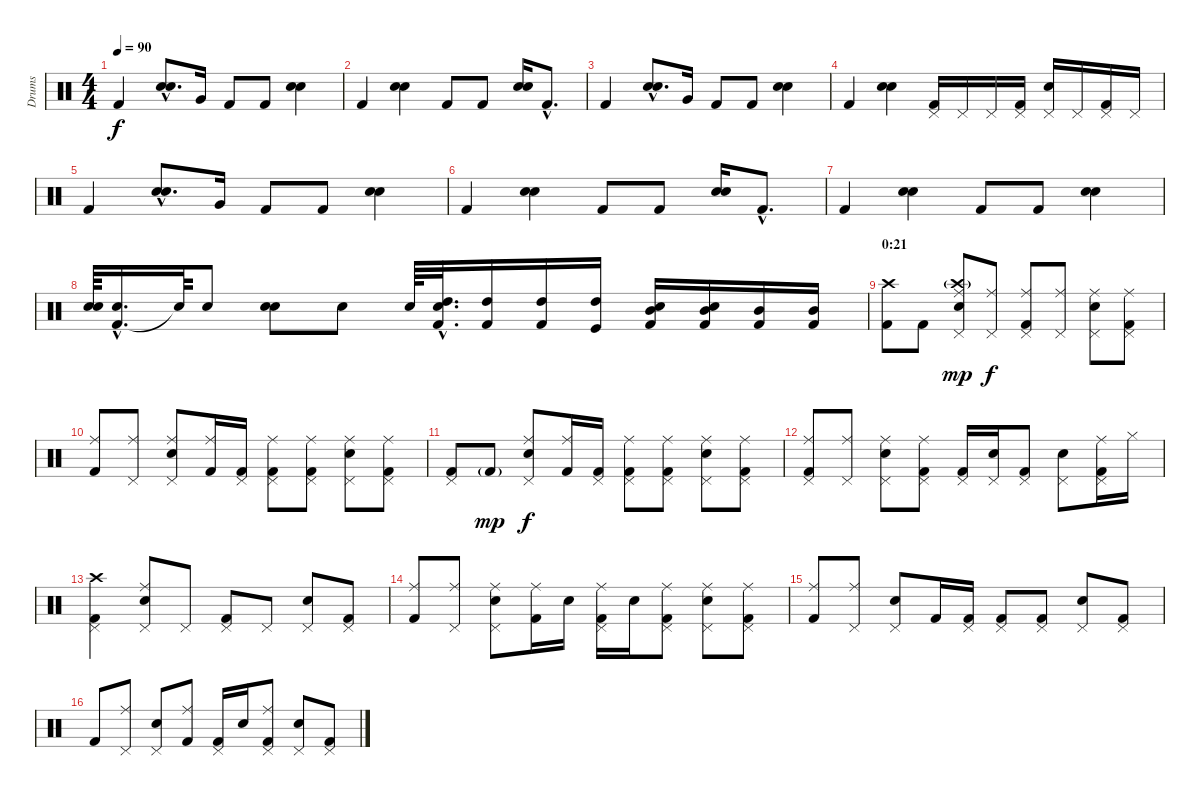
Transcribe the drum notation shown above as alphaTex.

\track ("Drums" "Drums") {instrument percussion}
\staff {score}
\articulation defaults
\ts (4 4)
\tempo 90
\clef neutral
\ks c "Kick (hit) 2".4{dy f}
("Hand Clap (hit)"{hac} "Snare (hit) 2"{hac}).8{d} "Very Low Tom (hit)".16 "Kick (hit) 2".8 "Kick (hit) 2".8 ("Hand Clap (hit)" "Snare (hit) 2").4 |
"Kick (hit) 2".4 ("Hand Clap (hit)" "Snare (hit) 2").4 "Kick (hit) 2".8 "Kick (hit) 2".8 ("Hand Clap (hit)" "Snare (hit) 2").16 "Kick (hit) 2"{hac}.8{d} |
"Kick (hit) 2".4 ("Hand Clap (hit)"{hac} "Snare (hit) 2"{hac}).8{d} "Very Low Tom (hit)".16 "Kick (hit) 2".8 "Kick (hit) 2".8 ("Hand Clap (hit)" "Snare (hit) 2").4 |
"Kick (hit) 2".4 ("Hand Clap (hit)" "Snare (hit) 2").4 ("Kick (hit) 2" "Pedal Hi-Hat (hit)").16 "Pedal Hi-Hat (hit)".16 "Pedal Hi-Hat (hit)".16 ("Kick (hit) 2" "Pedal Hi-Hat (hit)").16 ("Snare (hit) 2" "Pedal Hi-Hat (hit)").16 "Pedal Hi-Hat (hit)".16 ("Kick (hit) 2" "Pedal Hi-Hat (hit)").16 "Pedal Hi-Hat (hit)".16 |
"Kick (hit) 2".4 ("Hand Clap (hit)"{hac} "Snare (hit) 2"{hac}).8{d} "Very Low Tom (hit)".16 "Kick (hit) 2".8 "Kick (hit) 2".8 ("Hand Clap (hit)" "Snare (hit) 2").4 |
"Kick (hit) 2".4 ("Hand Clap (hit)" "Snare (hit) 2").4 "Kick (hit) 2".8 "Kick (hit) 2".8 ("Hand Clap (hit)" "Snare (hit) 2").16 "Kick (hit) 2"{hac}.8{d} |
"Kick (hit) 2".4 ("Hand Clap (hit)" "Snare (hit) 2").4 "Kick (hit) 2".8 "Kick (hit) 2".8 ("Hand Clap (hit)" "Snare (hit) 2").4 |
("Snare (hit) 2" "Hand Clap (hit)").64 ("Kick (hit) 2"{hac} "Snare (hit) 2"{hac}).16{d} "Snare (hit)"{t}.64 "Snare (hit) 2".8 ("Hand Clap (hit)" "Snare (hit) 2").8 "Snare (hit) 2".8 "Snare (hit) 2".64 ("Kick (hit) 2"{hac} "Snare (hit) 2"{hac} "High Tom (hit)"{hac}).32{d} ("Kick (hit) 2" "High Tom (hit)").16 ("Kick (hit) 2" "High Tom (hit)").16 ("Kick (hit)" "High Tom (hit)").16 ("Kick (hit) 2" "Mid Tom (hit)" "Hand Clap (hit)").16 ("Kick (hit) 2" "Snare (hit) 2" "Mid Tom (hit)").16 ("Kick (hit) 2" "Mid Tom (hit)").16 ("Kick (hit) 2" "Mid Tom (hit)").16 |
\section ("" "0:21")
("Kick (hit) 2" "Crash high (hit)").8 "Kick (hit) 2".8 ("Snare (hit) 2" "Pedal Hi-Hat (hit)" "Crash high (hit)"{g} "Ride (middle)").8{dy mp} ("Pedal Hi-Hat (hit)" "Ride (middle)").8{dy f} ("Kick (hit) 2" "Pedal Hi-Hat (hit)" "Ride (middle)").8 ("Pedal Hi-Hat (hit)" "Ride (middle)").8 ("Snare (hit) 2" "Pedal Hi-Hat (hit)" "Ride (middle)").8 ("Kick (hit) 2" "Pedal Hi-Hat (hit)" "Ride (middle)").8 |
("Kick (hit) 2" "Ride (middle)").8 ("Pedal Hi-Hat (hit)" "Ride (middle)").8 ("Snare (hit) 2" "Pedal Hi-Hat (hit)" "Ride (middle)").8 ("Kick (hit) 2" "Ride (middle)").16 ("Kick (hit) 2" "Pedal Hi-Hat (hit)").16 ("Kick (hit) 2" "Pedal Hi-Hat (hit)" "Ride (middle)").8 ("Kick (hit) 2" "Pedal Hi-Hat (hit)" "Ride (middle)").8 ("Snare (hit) 2" "Pedal Hi-Hat (hit)" "Ride (middle)").8 ("Kick (hit) 2" "Pedal Hi-Hat (hit)" "Ride (middle)").8 |
("Kick (hit) 2" "Pedal Hi-Hat (hit)").8 "Kick (hit) 2"{g}.8{dy mp} ("Snare (hit) 2" "Pedal Hi-Hat (hit)" "Ride (middle)").8{dy f} ("Kick (hit) 2" "Ride (middle)").16 ("Kick (hit) 2" "Pedal Hi-Hat (hit)").16 ("Kick (hit) 2" "Pedal Hi-Hat (hit)" "Ride (middle)").8 ("Kick (hit) 2" "Pedal Hi-Hat (hit)" "Ride (middle)").8 ("Snare (hit) 2" "Pedal Hi-Hat (hit)" "Ride (middle)").8 ("Kick (hit) 2" "Pedal Hi-Hat (hit)" "Ride (middle)").8 |
("Kick (hit) 2" "Pedal Hi-Hat (hit)" "Ride (middle)").8 ("Pedal Hi-Hat (hit)" "Ride (middle)").8 ("Snare (hit) 2" "Pedal Hi-Hat (hit)" "Ride (middle)").8 ("Kick (hit) 2" "Pedal Hi-Hat (hit)" "Ride (middle)").8 ("Kick (hit) 2" "Pedal Hi-Hat (hit)").16 ("Snare (hit) 2" "Pedal Hi-Hat (hit)").16 ("Kick (hit) 2" "Pedal Hi-Hat (hit)").8 ("Snare (hit) 2" "Pedal Hi-Hat (hit)").8 ("Kick (hit) 2" "Pedal Hi-Hat (hit)" "Ride (middle)").16 "Hi-Hat (closed)".16 |
("Kick (hit) 2" "Pedal Hi-Hat (hit)" "Crash high (hit)").4 ("Snare (hit) 2" "Pedal Hi-Hat (hit)" "Ride (middle)").8 "Pedal Hi-Hat (hit)".8 ("Kick (hit) 2" "Pedal Hi-Hat (hit)").8 "Pedal Hi-Hat (hit)".8 ("Snare (hit) 2" "Pedal Hi-Hat (hit)").8 ("Kick (hit) 2" "Pedal Hi-Hat (hit)").8 |
("Kick (hit) 2" "Ride (middle)").8 ("Pedal Hi-Hat (hit)" "Ride (middle)").8 ("Snare (hit) 2" "Pedal Hi-Hat (hit)" "Ride (middle)").8 ("Kick (hit) 2" "Ride (middle)").16 "Snare (hit) 2".16 ("Kick (hit) 2" "Pedal Hi-Hat (hit)" "Ride (middle)").16 "Snare (hit) 2".16 ("Kick (hit) 2" "Pedal Hi-Hat (hit)" "Ride (middle)").8 ("Snare (hit) 2" "Pedal Hi-Hat (hit)" "Ride (middle)").8 ("Kick (hit) 2" "Pedal Hi-Hat (hit)" "Ride (middle)").8 |
("Kick (hit) 2" "Ride (middle)").8 ("Pedal Hi-Hat (hit)" "Ride (middle)").8 ("Snare (hit) 2" "Pedal Hi-Hat (hit)").8 "Kick (hit) 2".16 ("Kick (hit) 2" "Pedal Hi-Hat (hit)").16 ("Kick (hit) 2" "Pedal Hi-Hat (hit)").8 ("Kick (hit) 2" "Pedal Hi-Hat (hit)").8 ("Snare (hit) 2" "Pedal Hi-Hat (hit)").8 ("Kick (hit) 2" "Pedal Hi-Hat (hit)").8 |
"Kick (hit) 2".8 ("Pedal Hi-Hat (hit)" "Ride (middle)").8 ("Snare (hit) 2" "Pedal Hi-Hat (hit)").8 ("Kick (hit) 2" "Ride (middle)").8 ("Kick (hit) 2" "Pedal Hi-Hat (hit)").16 "Snare (hit) 2".16 ("Kick (hit) 2" "Pedal Hi-Hat (hit)" "Ride (middle)").8 ("Snare (hit) 2" "Pedal Hi-Hat (hit)").8 ("Kick (hit) 2" "Pedal Hi-Hat (hit)").8
